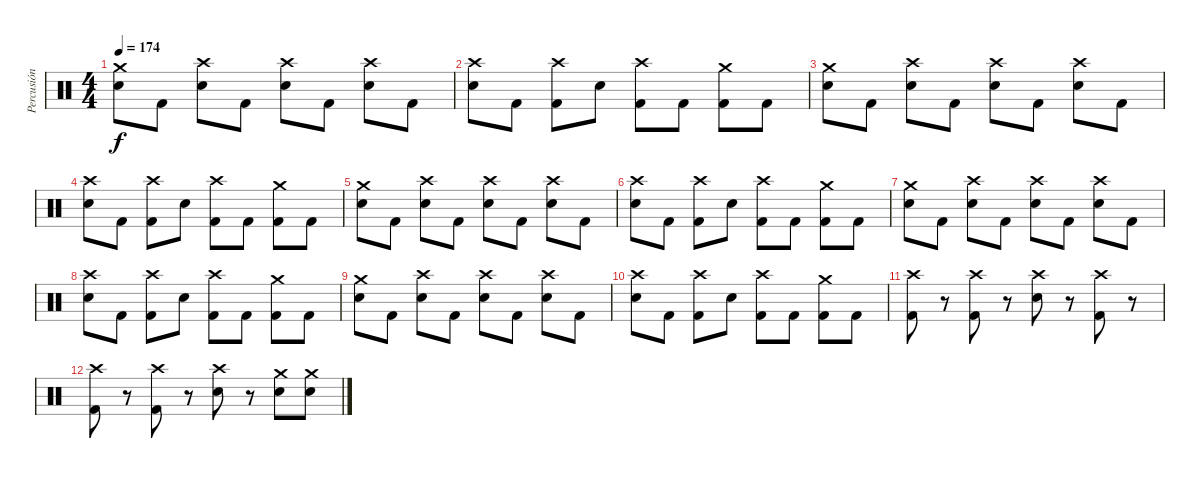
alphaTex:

\track ("Percusión" "Percusión") {instrument percussion}
\staff {score}
\articulation defaults
\ts (4 4)
\tempo 174
\clef neutral
\ks c
("Crash medium (hit)" "Electric Snare (hit)").8{dy f} "Kick (hit) 2".8 ("Crash high (hit)" "Electric Snare (hit)").8 "Kick (hit) 2".8 ("Crash high (hit)" "Electric Snare (hit)").8 "Kick (hit) 2".8 ("Crash high (hit)" "Electric Snare (hit)").8 "Kick (hit) 2".8 |
("Crash high (hit)" "Electric Snare (hit)").8 "Kick (hit) 2".8 ("Crash high (hit)" "Kick (hit) 2").8 "Electric Snare (hit)".8 ("Crash high (hit)" "Kick (hit) 2").8 "Kick (hit) 2".8 ("Crash medium (hit)" "Kick (hit) 2").8 "Kick (hit) 2".8 |
("Crash medium (hit)" "Electric Snare (hit)").8 "Kick (hit) 2".8 ("Crash high (hit)" "Electric Snare (hit)").8 "Kick (hit) 2".8 ("Crash high (hit)" "Electric Snare (hit)").8 "Kick (hit) 2".8 ("Crash high (hit)" "Electric Snare (hit)").8 "Kick (hit) 2".8 |
("Crash high (hit)" "Electric Snare (hit)").8 "Kick (hit) 2".8 ("Crash high (hit)" "Kick (hit) 2").8 "Electric Snare (hit)".8 ("Crash high (hit)" "Kick (hit) 2").8 "Kick (hit) 2".8 ("Crash medium (hit)" "Kick (hit) 2").8 "Kick (hit) 2".8 |
("Crash medium (hit)" "Electric Snare (hit)").8 "Kick (hit) 2".8 ("Crash high (hit)" "Electric Snare (hit)").8 "Kick (hit) 2".8 ("Crash high (hit)" "Electric Snare (hit)").8 "Kick (hit) 2".8 ("Crash high (hit)" "Electric Snare (hit)").8 "Kick (hit) 2".8 |
("Crash high (hit)" "Electric Snare (hit)").8 "Kick (hit) 2".8 ("Crash high (hit)" "Kick (hit) 2").8 "Electric Snare (hit)".8 ("Crash high (hit)" "Kick (hit) 2").8 "Kick (hit) 2".8 ("Crash medium (hit)" "Kick (hit) 2").8 "Kick (hit) 2".8 |
("Crash medium (hit)" "Electric Snare (hit)").8 "Kick (hit) 2".8 ("Crash high (hit)" "Electric Snare (hit)").8 "Kick (hit) 2".8 ("Crash high (hit)" "Electric Snare (hit)").8 "Kick (hit) 2".8 ("Crash high (hit)" "Electric Snare (hit)").8 "Kick (hit) 2".8 |
("Crash high (hit)" "Electric Snare (hit)").8 "Kick (hit) 2".8 ("Crash high (hit)" "Kick (hit) 2").8 "Electric Snare (hit)".8 ("Crash high (hit)" "Kick (hit) 2").8 "Kick (hit) 2".8 ("Crash medium (hit)" "Kick (hit) 2").8 "Kick (hit) 2".8 |
("Crash medium (hit)" "Electric Snare (hit)").8 "Kick (hit) 2".8 ("Crash high (hit)" "Electric Snare (hit)").8 "Kick (hit) 2".8 ("Crash high (hit)" "Electric Snare (hit)").8 "Kick (hit) 2".8 ("Crash high (hit)" "Electric Snare (hit)").8 "Kick (hit) 2".8 |
("Crash high (hit)" "Electric Snare (hit)").8 "Kick (hit) 2".8 ("Crash high (hit)" "Kick (hit) 2").8 "Electric Snare (hit)".8 ("Crash high (hit)" "Kick (hit) 2").8 "Kick (hit) 2".8 ("Crash medium (hit)" "Kick (hit) 2").8 "Kick (hit) 2".8 |
("Crash high (hit)" "Kick (hit) 2").8 r.8 ("Crash high (hit)" "Kick (hit) 2").8 r.8 ("Crash high (hit)" "Electric Snare (hit)").8 r.8 ("Crash high (hit)" "Kick (hit) 2").8 r.8 |
("Crash high (hit)" "Kick (hit) 2").8 r.8 ("Crash high (hit)" "Kick (hit) 2").8 r.8 ("Crash high (hit)" "Electric Snare (hit)").8 r.8 ("Crash medium (hit)" "Electric Snare (hit)").8 ("Crash medium (hit)" "Electric Snare (hit)").8
